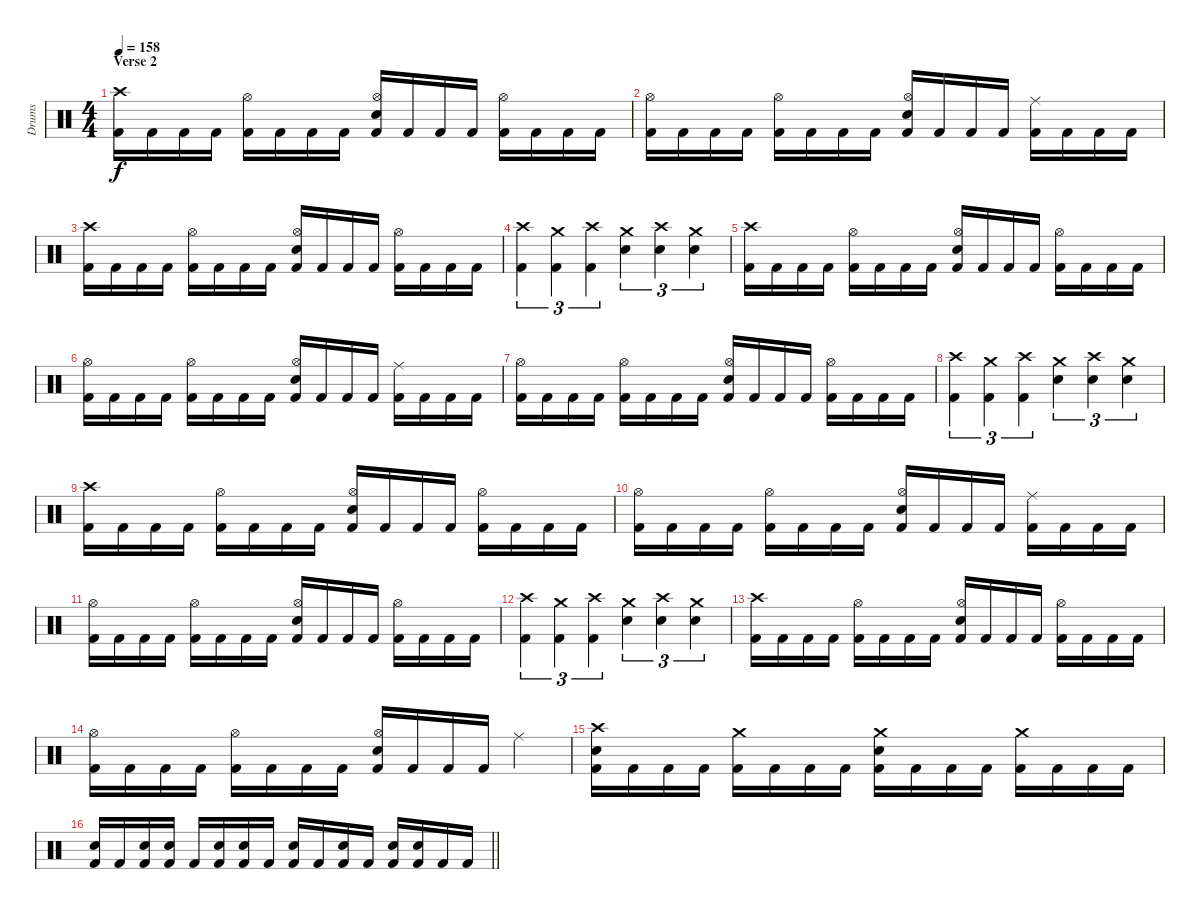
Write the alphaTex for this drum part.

\track ("Drums" "Drums") {instrument percussion}
\staff {score}
\articulation defaults
\ts (4 4)
\section ("" "Verse 2")
\tempo 158
\clef neutral
\ks c
("Crash high (hit)" "Kick (hit) 2").16{dy f} "Kick (hit) 2".16 "Kick (hit) 2".16 "Kick (hit) 2".16 ("Hi-Hat (open)" "Kick (hit) 2").16 "Kick (hit) 2".16 "Kick (hit) 2".16 "Kick (hit) 2".16 ("Hi-Hat (open)" "Snare (hit) 2" "Kick (hit) 2").16 "Kick (hit) 2".16 "Kick (hit) 2".16 "Kick (hit) 2".16 ("Hi-Hat (open)" "Kick (hit) 2").16 "Kick (hit) 2".16 "Kick (hit) 2".16 "Kick (hit) 2".16 |
("Hi-Hat (open)" "Kick (hit) 2").16 "Kick (hit) 2".16 "Kick (hit) 2".16 "Kick (hit) 2".16 ("Hi-Hat (open)" "Kick (hit) 2").16 "Kick (hit) 2".16 "Kick (hit) 2".16 "Kick (hit) 2".16 ("Hi-Hat (open)" "Snare (hit) 2" "Kick (hit) 2").16 "Kick (hit) 2".16 "Kick (hit) 2".16 "Kick (hit) 2".16 ("Ride (middle)" "Kick (hit) 2").16 "Kick (hit) 2".16 "Kick (hit) 2".16 "Kick (hit) 2".16 |
("Crash high (hit)" "Kick (hit) 2").16 "Kick (hit) 2".16 "Kick (hit) 2".16 "Kick (hit) 2".16 ("Hi-Hat (open)" "Kick (hit) 2").16 "Kick (hit) 2".16 "Kick (hit) 2".16 "Kick (hit) 2".16 ("Hi-Hat (open)" "Snare (hit) 2" "Kick (hit) 2").16 "Kick (hit) 2".16 "Kick (hit) 2".16 "Kick (hit) 2".16 ("Hi-Hat (open)" "Kick (hit) 2").16 "Kick (hit) 2".16 "Kick (hit) 2".16 "Kick (hit) 2".16 |
("Crash high (hit)" "Kick (hit) 2").4{tu (3 2)} ("Crash medium (hit)" "Kick (hit) 2").4{tu (3 2)} ("Crash high (hit)" "Kick (hit) 2").4{tu (3 2)} ("Crash medium (hit)" "Snare (hit) 2").4{tu (3 2)} ("Crash high (hit)" "Snare (hit) 2").4{tu (3 2)} ("Crash medium (hit)" "Snare (hit) 2").4{tu (3 2)} |
("Crash high (hit)" "Kick (hit) 2").16 "Kick (hit) 2".16 "Kick (hit) 2".16 "Kick (hit) 2".16 ("Hi-Hat (open)" "Kick (hit) 2").16 "Kick (hit) 2".16 "Kick (hit) 2".16 "Kick (hit) 2".16 ("Hi-Hat (open)" "Snare (hit) 2" "Kick (hit) 2").16 "Kick (hit) 2".16 "Kick (hit) 2".16 "Kick (hit) 2".16 ("Hi-Hat (open)" "Kick (hit) 2").16 "Kick (hit) 2".16 "Kick (hit) 2".16 "Kick (hit) 2".16 |
("Hi-Hat (open)" "Kick (hit) 2").16 "Kick (hit) 2".16 "Kick (hit) 2".16 "Kick (hit) 2".16 ("Hi-Hat (open)" "Kick (hit) 2").16 "Kick (hit) 2".16 "Kick (hit) 2".16 "Kick (hit) 2".16 ("Hi-Hat (open)" "Snare (hit) 2" "Kick (hit) 2").16 "Kick (hit) 2".16 "Kick (hit) 2".16 "Kick (hit) 2".16 ("Ride (middle)" "Kick (hit) 2").16 "Kick (hit) 2".16 "Kick (hit) 2".16 "Kick (hit) 2".16 |
("Hi-Hat (open)" "Kick (hit) 2").16 "Kick (hit) 2".16 "Kick (hit) 2".16 "Kick (hit) 2".16 ("Hi-Hat (open)" "Kick (hit) 2").16 "Kick (hit) 2".16 "Kick (hit) 2".16 "Kick (hit) 2".16 ("Hi-Hat (open)" "Snare (hit) 2" "Kick (hit) 2").16 "Kick (hit) 2".16 "Kick (hit) 2".16 "Kick (hit) 2".16 ("Hi-Hat (open)" "Kick (hit) 2").16 "Kick (hit) 2".16 "Kick (hit) 2".16 "Kick (hit) 2".16 |
("Crash high (hit)" "Kick (hit) 2").4{tu (3 2)} ("Crash medium (hit)" "Kick (hit) 2").4{tu (3 2)} ("Crash high (hit)" "Kick (hit) 2").4{tu (3 2)} ("Crash medium (hit)" "Snare (hit) 2").4{tu (3 2)} ("Crash high (hit)" "Snare (hit) 2").4{tu (3 2)} ("Crash medium (hit)" "Snare (hit) 2").4{tu (3 2)} |
("Crash high (hit)" "Kick (hit) 2").16 "Kick (hit) 2".16 "Kick (hit) 2".16 "Kick (hit) 2".16 ("Hi-Hat (open)" "Kick (hit) 2").16 "Kick (hit) 2".16 "Kick (hit) 2".16 "Kick (hit) 2".16 ("Hi-Hat (open)" "Snare (hit) 2" "Kick (hit) 2").16 "Kick (hit) 2".16 "Kick (hit) 2".16 "Kick (hit) 2".16 ("Hi-Hat (open)" "Kick (hit) 2").16 "Kick (hit) 2".16 "Kick (hit) 2".16 "Kick (hit) 2".16 |
("Hi-Hat (open)" "Kick (hit) 2").16 "Kick (hit) 2".16 "Kick (hit) 2".16 "Kick (hit) 2".16 ("Hi-Hat (open)" "Kick (hit) 2").16 "Kick (hit) 2".16 "Kick (hit) 2".16 "Kick (hit) 2".16 ("Hi-Hat (open)" "Snare (hit) 2" "Kick (hit) 2").16 "Kick (hit) 2".16 "Kick (hit) 2".16 "Kick (hit) 2".16 ("Ride (middle)" "Kick (hit) 2").16 "Kick (hit) 2".16 "Kick (hit) 2".16 "Kick (hit) 2".16 |
("Hi-Hat (open)" "Kick (hit) 2").16 "Kick (hit) 2".16 "Kick (hit) 2".16 "Kick (hit) 2".16 ("Hi-Hat (open)" "Kick (hit) 2").16 "Kick (hit) 2".16 "Kick (hit) 2".16 "Kick (hit) 2".16 ("Hi-Hat (open)" "Snare (hit) 2" "Kick (hit) 2").16 "Kick (hit) 2".16 "Kick (hit) 2".16 "Kick (hit) 2".16 ("Hi-Hat (open)" "Kick (hit) 2").16 "Kick (hit) 2".16 "Kick (hit) 2".16 "Kick (hit) 2".16 |
("Crash high (hit)" "Kick (hit) 2").4{tu (3 2)} ("Crash medium (hit)" "Kick (hit) 2").4{tu (3 2)} ("Crash high (hit)" "Kick (hit) 2").4{tu (3 2)} ("Crash medium (hit)" "Snare (hit) 2").4{tu (3 2)} ("Crash high (hit)" "Snare (hit) 2").4{tu (3 2)} ("Crash medium (hit)" "Snare (hit) 2").4{tu (3 2)} |
("Crash high (hit)" "Kick (hit) 2").16 "Kick (hit) 2".16 "Kick (hit) 2".16 "Kick (hit) 2".16 ("Hi-Hat (open)" "Kick (hit) 2").16 "Kick (hit) 2".16 "Kick (hit) 2".16 "Kick (hit) 2".16 ("Hi-Hat (open)" "Snare (hit) 2" "Kick (hit) 2").16 "Kick (hit) 2".16 "Kick (hit) 2".16 "Kick (hit) 2".16 ("Hi-Hat (open)" "Kick (hit) 2").16 "Kick (hit) 2".16 "Kick (hit) 2".16 "Kick (hit) 2".16 |
("Hi-Hat (open)" "Kick (hit) 2").16 "Kick (hit) 2".16 "Kick (hit) 2".16 "Kick (hit) 2".16 ("Hi-Hat (open)" "Kick (hit) 2").16 "Kick (hit) 2".16 "Kick (hit) 2".16 "Kick (hit) 2".16 ("Hi-Hat (open)" "Snare (hit) 2" "Kick (hit) 2").16 "Kick (hit) 2".16 "Kick (hit) 2".16 "Kick (hit) 2".16 "Ride (middle)".4 |
("Crash high (hit)" "Snare (hit) 2" "Kick (hit) 2").16 "Kick (hit) 2".16 "Kick (hit) 2".16 "Kick (hit) 2".16 ("Crash medium (hit)" "Kick (hit) 2").16 "Kick (hit) 2".16 "Kick (hit) 2".16 "Kick (hit) 2".16 ("Crash medium (hit)" "Snare (hit) 2" "Kick (hit) 2").16 "Kick (hit) 2".16 "Kick (hit) 2".16 "Kick (hit) 2".16 ("Crash medium (hit)" "Kick (hit) 2").16 "Kick (hit) 2".16 "Kick (hit) 2".16 "Kick (hit) 2".16 |
\barLineRight lightlight
("Snare (hit) 2" "Kick (hit) 2").16 "Kick (hit) 2".16 ("Snare (hit) 2" "Kick (hit) 2").16 ("Snare (hit) 2" "Kick (hit) 2").16 "Kick (hit) 2".16 ("Snare (hit) 2" "Kick (hit) 2").16 ("Snare (hit) 2" "Kick (hit) 2").16 "Kick (hit) 2".16 ("Snare (hit) 2" "Kick (hit) 2").16 "Kick (hit) 2".16 ("Snare (hit) 2" "Kick (hit) 2").16 "Kick (hit) 2".16 ("Snare (hit) 2" "Kick (hit) 2").16 ("Snare (hit) 2" "Kick (hit) 2").16 "Kick (hit) 2".16 "Kick (hit) 2".16
